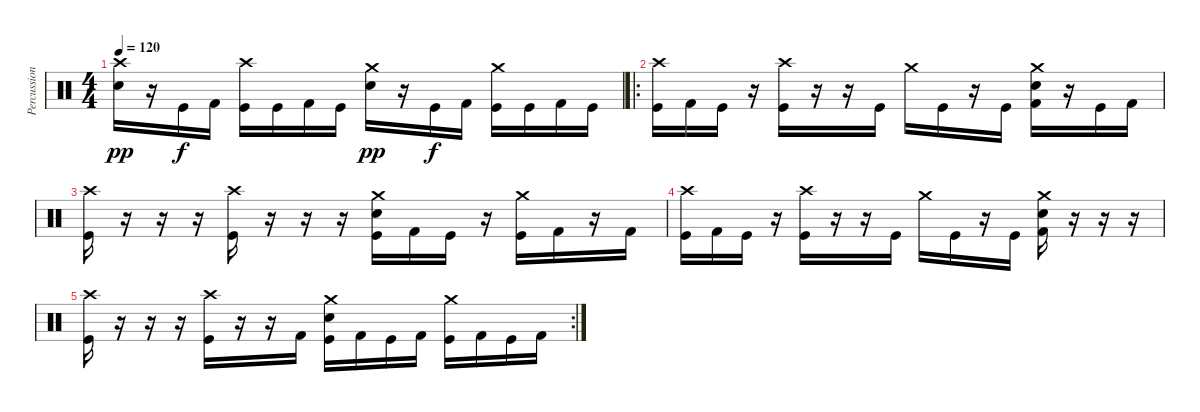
\track ("Percussion" "Percussion") {instrument percussion}
\staff {score}
\articulation defaults
\ts (4 4)
\tempo 120
\clef neutral
\ks c
("Crash high (hit)" "Snare (hit) 2").16{dy pp} r.16 "Kick (hit)".16{dy f} "Kick (hit) 2".16 ("Crash high (hit)" "Kick (hit)").16 "Kick (hit)".16 "Kick (hit) 2".16 "Kick (hit)".16 ("Crash medium (hit)" "Snare (hit) 2").16{dy pp} r.16 "Kick (hit)".16{dy f} "Kick (hit) 2".16 ("Crash medium (hit)" "Kick (hit)").16 "Kick (hit)".16 "Kick (hit) 2".16 "Kick (hit)".16 |
\ro
("Crash high (hit)" "Kick (hit)").16 "Kick (hit) 2".16 "Kick (hit)".16 r.16 ("Crash high (hit)" "Kick (hit)").16 r.16 r.16 "Kick (hit)".16 "Crash medium (hit)".16 "Kick (hit)".16 r.16 "Kick (hit)".16 ("Crash medium (hit)" "Snare (hit) 2" "Kick (hit) 2").16 r.16 "Kick (hit)".16 "Kick (hit) 2".16 |
("Crash high (hit)" "Kick (hit)").16 r.16 r.16 r.16 ("Crash high (hit)" "Kick (hit)").16 r.16 r.16 r.16 ("Crash medium (hit)" "Snare (hit) 2" "Kick (hit)").16 "Kick (hit) 2".16 "Kick (hit)".16 r.16 ("Crash medium (hit)" "Kick (hit)").16 "Kick (hit) 2".16 r.16 "Kick (hit) 2".16 |
("Crash high (hit)" "Kick (hit)").16 "Kick (hit) 2".16 "Kick (hit)".16 r.16 ("Crash high (hit)" "Kick (hit)").16 r.16 r.16 "Kick (hit)".16 "Crash medium (hit)".16 "Kick (hit)".16 r.16 "Kick (hit)".16 ("Crash medium (hit)" "Snare (hit) 2" "Kick (hit) 2").16 r.16 r.16 r.16 |
\rc 2
("Crash high (hit)" "Kick (hit)").16 r.16 r.16 r.16 ("Crash high (hit)" "Kick (hit)").16 r.16 r.16 "Kick (hit) 2".16 ("Crash medium (hit)" "Snare (hit) 2" "Kick (hit)").16 "Kick (hit) 2".16 "Kick (hit)".16 "Kick (hit) 2".16 ("Crash medium (hit)" "Kick (hit)").16 "Kick (hit) 2".16 "Kick (hit)".16 "Kick (hit) 2".16
